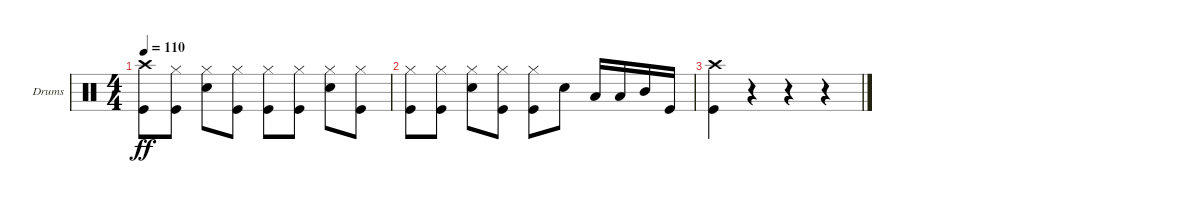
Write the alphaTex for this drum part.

\defaultSystemsLayout 4
\bracketExtendMode groupsimilarinstruments
\firstSystemTrackNameOrientation horizontal
\otherSystemsTrackNameOrientation horizontal
\track ("Drumkit" "Drums") {instrument percussion}
\staff {score}
\articulation defaults
\ts (4 4)
\tempo 110
\clef neutral
\ks c
("Kick (hit)" "Crash high (hit)").8{dy ff} ("Kick (hit)" "Hi-Hat (closed)").8 ("Snare (hit) 2" "Hi-Hat (closed)").8 ("Kick (hit)" "Hi-Hat (closed)").8 ("Kick (hit)" "Hi-Hat (closed)").8 ("Kick (hit)" "Hi-Hat (closed)").8 ("Snare (hit) 2" "Hi-Hat (closed)").8 ("Kick (hit)" "Hi-Hat (closed)").8 |
("Kick (hit)" "Hi-Hat (closed)").8 ("Kick (hit)" "Hi-Hat (closed)").8 ("Snare (hit) 2" "Hi-Hat (closed)").8 ("Kick (hit)" "Hi-Hat (closed)").8 ("Kick (hit)" "Hi-Hat (closed)").8 "Snare (hit) 2".8 "Low Tom (hit)".16 "Low Tom (hit)".16 "Mid Tom (hit)".16 "Kick (hit)".16 |
("Kick (hit)" "Crash high (hit)").4 r.4 r.4 r.4
